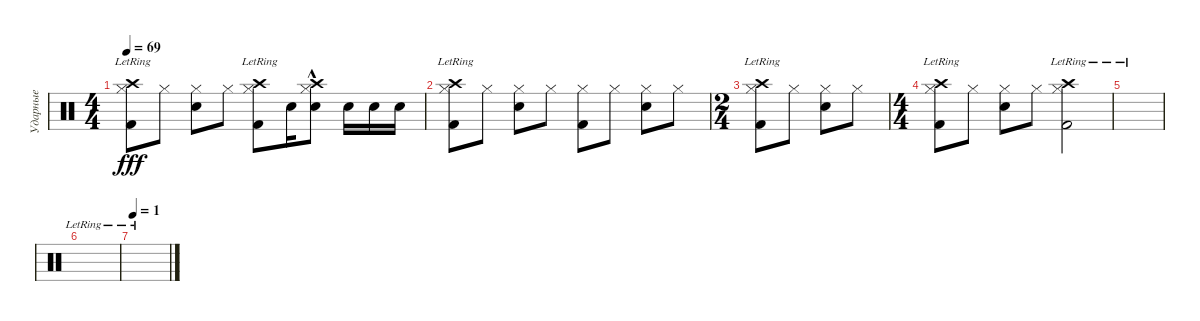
\track ("Ударные" "Ударные") {instrument percussion}
\staff {score}
\articulation defaults
\ts (4 4)
\tempo 69
\clef neutral
\ks c
("Hi-Hat (closed)" "Kick (hit) 2" "Crash high (hit)"{lr}).8{dy fff} "Hi-Hat (closed)".8 ("Hi-Hat (closed)" "Snare (hit) 2").8 "Hi-Hat (closed)".8 ("Hi-Hat (closed)" "Kick (hit) 2" "Crash high (hit)"{lr}).8 "Snare (hit) 2".16 ("Hi-Hat (closed)" "Snare (hit) 2" "Crash high (hit)"{hac}).8 "Snare (hit) 2".16 "Snare (hit) 2".16 "Snare (hit) 2".16 |
("Hi-Hat (closed)" "Kick (hit) 2" "Crash high (hit)"{lr}).8 "Hi-Hat (closed)".8 ("Hi-Hat (closed)" "Snare (hit) 2").8 "Hi-Hat (closed)".8 ("Hi-Hat (closed)" "Kick (hit) 2").8 "Hi-Hat (closed)".8 ("Hi-Hat (closed)" "Snare (hit) 2").8 "Hi-Hat (closed)".8 |
\ts (2 4)
("Hi-Hat (closed)" "Kick (hit) 2" "Crash high (hit)"{lr}).8 "Hi-Hat (closed)".8 ("Hi-Hat (closed)" "Snare (hit) 2").8 "Hi-Hat (closed)".8 |
\ts (4 4)
("Hi-Hat (closed)" "Kick (hit) 2" "Crash high (hit)"{lr}).8 "Hi-Hat (closed)".8 ("Hi-Hat (closed)" "Snare (hit) 2").8 "Hi-Hat (closed)".8 ("Hi-Hat (closed)" "Kick (hit) 2" "Crash high (hit)"{lr}).2 |
|
|
\tempo 1
